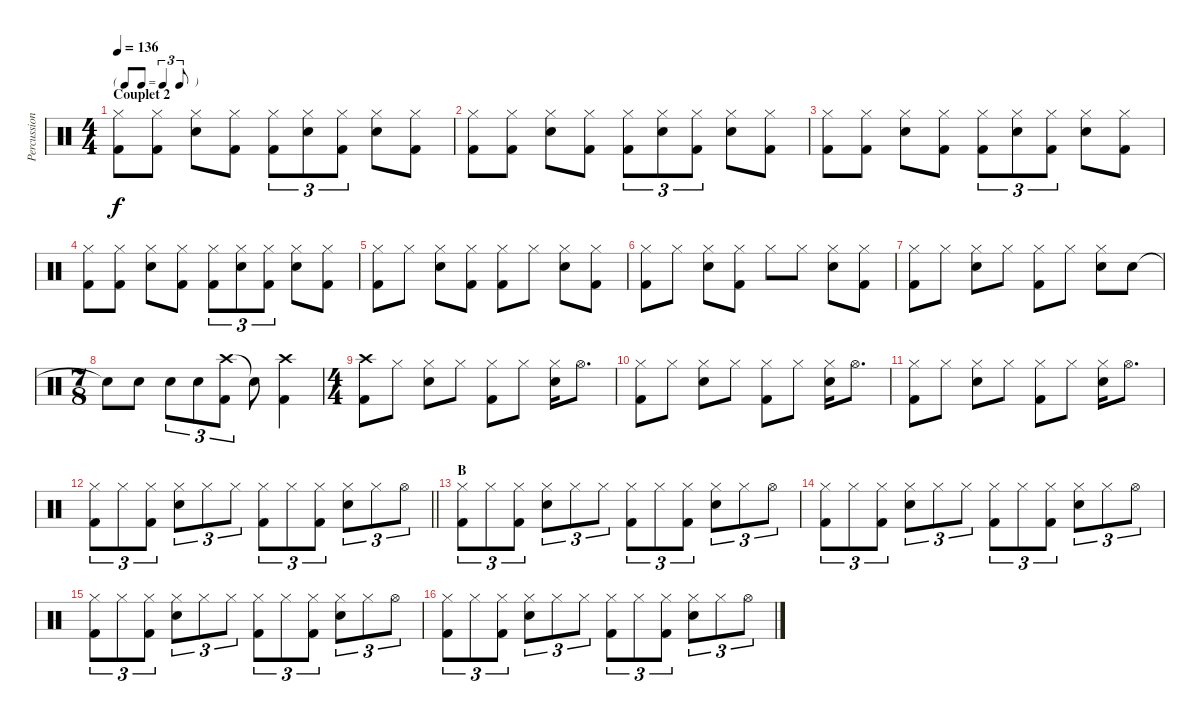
\track ("Percussions" "Percussion") {instrument percussion}
\staff {score}
\articulation defaults
\ts (4 4)
\tf triplet8th
\section ("" "Couplet 2")
\tempo 136
\clef neutral
\ks c
("Hi-Hat (closed)" "Kick (hit) 2").8{dy f} ("Hi-Hat (closed)" "Kick (hit) 2").8 ("Hi-Hat (closed)" "Snare (hit) 2").8 ("Hi-Hat (closed)" "Kick (hit) 2").8 ("Hi-Hat (closed)" "Kick (hit) 2").8{tu (3 2)} ("Hi-Hat (closed)" "Snare (hit) 2").8{tu (3 2)} ("Hi-Hat (closed)" "Kick (hit) 2").8{tu (3 2)} ("Hi-Hat (closed)" "Snare (hit) 2").8 ("Hi-Hat (closed)" "Kick (hit) 2").8 |
("Hi-Hat (closed)" "Kick (hit) 2").8 ("Hi-Hat (closed)" "Kick (hit) 2").8 ("Hi-Hat (closed)" "Snare (hit) 2").8 ("Hi-Hat (closed)" "Kick (hit) 2").8 ("Hi-Hat (closed)" "Kick (hit) 2").8{tu (3 2)} ("Hi-Hat (closed)" "Snare (hit) 2").8{tu (3 2)} ("Hi-Hat (closed)" "Kick (hit) 2").8{tu (3 2)} ("Hi-Hat (closed)" "Snare (hit) 2").8 ("Hi-Hat (closed)" "Kick (hit) 2").8 |
("Hi-Hat (closed)" "Kick (hit) 2").8 ("Hi-Hat (closed)" "Kick (hit) 2").8 ("Hi-Hat (closed)" "Snare (hit) 2").8 ("Hi-Hat (closed)" "Kick (hit) 2").8 ("Hi-Hat (closed)" "Kick (hit) 2").8{tu (3 2)} ("Hi-Hat (closed)" "Snare (hit) 2").8{tu (3 2)} ("Hi-Hat (closed)" "Kick (hit) 2").8{tu (3 2)} ("Hi-Hat (closed)" "Snare (hit) 2").8 ("Hi-Hat (closed)" "Kick (hit) 2").8 |
("Hi-Hat (closed)" "Kick (hit) 2").8 ("Hi-Hat (closed)" "Kick (hit) 2").8 ("Hi-Hat (closed)" "Snare (hit) 2").8 ("Hi-Hat (closed)" "Kick (hit) 2").8 ("Hi-Hat (closed)" "Kick (hit) 2").8{tu (3 2)} ("Hi-Hat (closed)" "Snare (hit) 2").8{tu (3 2)} ("Hi-Hat (closed)" "Kick (hit) 2").8{tu (3 2)} ("Hi-Hat (closed)" "Snare (hit) 2").8 ("Hi-Hat (closed)" "Kick (hit) 2").8 |
("Hi-Hat (closed)" "Kick (hit) 2").8 "Hi-Hat (closed)".8 ("Hi-Hat (closed)" "Snare (hit) 2").8 ("Hi-Hat (closed)" "Kick (hit) 2").8 ("Hi-Hat (closed)" "Kick (hit) 2").8 "Hi-Hat (closed)".8 ("Hi-Hat (closed)" "Snare (hit) 2").8 ("Hi-Hat (closed)" "Kick (hit) 2").8 |
("Hi-Hat (closed)" "Kick (hit) 2").8 "Hi-Hat (closed)".8 ("Hi-Hat (closed)" "Snare (hit) 2").8 ("Hi-Hat (closed)" "Kick (hit) 2").8 "Hi-Hat (closed)".8 "Hi-Hat (closed)".8 ("Hi-Hat (closed)" "Snare (hit) 2").8 ("Hi-Hat (closed)" "Kick (hit) 2").8 |
("Hi-Hat (closed)" "Kick (hit) 2").8 "Hi-Hat (closed)".8 ("Hi-Hat (closed)" "Snare (hit) 2").8 "Hi-Hat (closed)".8 ("Hi-Hat (closed)" "Kick (hit) 2").8 "Hi-Hat (closed)".8 ("Hi-Hat (closed)" "Snare (hit) 2").8 "Snare (hit) 2".8 |
\ts (7 8)
"Snare (hit) 2"{t}.8 "Snare (hit) 2".8 "Snare (hit) 2".8{tu (3 2)} "Snare (hit) 2".8{tu (3 2)} ("Crash high (hit)" "Kick (hit) 2").8{tu (3 2)} "Snare (hit)"{t}.8 ("Crash high (hit)" "Kick (hit) 2").4 |
\ts (4 4)
("Crash high (hit)" "Kick (hit) 2").8 "Hi-Hat (closed)".8 ("Hi-Hat (closed)" "Snare (hit) 2").8 "Hi-Hat (closed)".8 ("Hi-Hat (closed)" "Kick (hit) 2").8 "Hi-Hat (closed)".8 ("Hi-Hat (closed)" "Snare (hit) 2").16 "Hi-Hat (open)".8{d} |
("Hi-Hat (closed)" "Kick (hit) 2").8 "Hi-Hat (closed)".8 ("Hi-Hat (closed)" "Snare (hit) 2").8 "Hi-Hat (closed)".8 ("Hi-Hat (closed)" "Kick (hit) 2").8 "Hi-Hat (closed)".8 ("Hi-Hat (closed)" "Snare (hit) 2").16 "Hi-Hat (open)".8{d} |
("Hi-Hat (closed)" "Kick (hit) 2").8 "Hi-Hat (closed)".8 ("Hi-Hat (closed)" "Snare (hit) 2").8 "Hi-Hat (closed)".8 ("Hi-Hat (closed)" "Kick (hit) 2").8 "Hi-Hat (closed)".8 ("Hi-Hat (closed)" "Snare (hit) 2").16 "Hi-Hat (open)".8{d} |
\barLineRight lightlight
("Hi-Hat (closed)" "Kick (hit) 2").8{tu (3 2)} "Hi-Hat (closed)".8{tu (3 2)} ("Hi-Hat (closed)" "Kick (hit) 2").8{tu (3 2)} ("Hi-Hat (closed)" "Snare (hit) 2").8{tu (3 2)} "Hi-Hat (closed)".8{tu (3 2)} "Hi-Hat (closed)".8{tu (3 2)} ("Hi-Hat (closed)" "Kick (hit) 2").8{tu (3 2)} "Hi-Hat (closed)".8{tu (3 2)} ("Hi-Hat (closed)" "Kick (hit) 2").8{tu (3 2)} ("Hi-Hat (closed)" "Snare (hit) 2").8{tu (3 2)} "Hi-Hat (closed)".8{tu (3 2)} "Hi-Hat (open)".8{tu (3 2)} |
\section ("" "B")
("Hi-Hat (closed)" "Kick (hit) 2").8{tu (3 2)} "Hi-Hat (closed)".8{tu (3 2)} ("Hi-Hat (closed)" "Kick (hit) 2").8{tu (3 2)} ("Hi-Hat (closed)" "Snare (hit) 2").8{tu (3 2)} "Hi-Hat (closed)".8{tu (3 2)} "Hi-Hat (closed)".8{tu (3 2)} ("Hi-Hat (closed)" "Kick (hit) 2").8{tu (3 2)} "Hi-Hat (closed)".8{tu (3 2)} ("Hi-Hat (closed)" "Kick (hit) 2").8{tu (3 2)} ("Hi-Hat (closed)" "Snare (hit) 2").8{tu (3 2)} "Hi-Hat (closed)".8{tu (3 2)} "Hi-Hat (open)".8{tu (3 2)} |
("Hi-Hat (closed)" "Kick (hit) 2").8{tu (3 2)} "Hi-Hat (closed)".8{tu (3 2)} ("Hi-Hat (closed)" "Kick (hit) 2").8{tu (3 2)} ("Hi-Hat (closed)" "Snare (hit) 2").8{tu (3 2)} "Hi-Hat (closed)".8{tu (3 2)} "Hi-Hat (closed)".8{tu (3 2)} ("Hi-Hat (closed)" "Kick (hit) 2").8{tu (3 2)} "Hi-Hat (closed)".8{tu (3 2)} ("Hi-Hat (closed)" "Kick (hit) 2").8{tu (3 2)} ("Hi-Hat (closed)" "Snare (hit) 2").8{tu (3 2)} "Hi-Hat (closed)".8{tu (3 2)} "Hi-Hat (open)".8{tu (3 2)} |
("Hi-Hat (closed)" "Kick (hit) 2").8{tu (3 2)} "Hi-Hat (closed)".8{tu (3 2)} ("Hi-Hat (closed)" "Kick (hit) 2").8{tu (3 2)} ("Hi-Hat (closed)" "Snare (hit) 2").8{tu (3 2)} "Hi-Hat (closed)".8{tu (3 2)} "Hi-Hat (closed)".8{tu (3 2)} ("Hi-Hat (closed)" "Kick (hit) 2").8{tu (3 2)} "Hi-Hat (closed)".8{tu (3 2)} ("Hi-Hat (closed)" "Kick (hit) 2").8{tu (3 2)} ("Hi-Hat (closed)" "Snare (hit) 2").8{tu (3 2)} "Hi-Hat (closed)".8{tu (3 2)} "Hi-Hat (open)".8{tu (3 2)} |
("Hi-Hat (closed)" "Kick (hit) 2").8{tu (3 2)} "Hi-Hat (closed)".8{tu (3 2)} ("Hi-Hat (closed)" "Kick (hit) 2").8{tu (3 2)} ("Hi-Hat (closed)" "Snare (hit) 2").8{tu (3 2)} "Hi-Hat (closed)".8{tu (3 2)} "Hi-Hat (closed)".8{tu (3 2)} ("Hi-Hat (closed)" "Kick (hit) 2").8{tu (3 2)} "Hi-Hat (closed)".8{tu (3 2)} ("Hi-Hat (closed)" "Kick (hit) 2").8{tu (3 2)} ("Hi-Hat (closed)" "Snare (hit) 2").8{tu (3 2)} "Hi-Hat (closed)".8{tu (3 2)} "Hi-Hat (open)".8{tu (3 2)}
